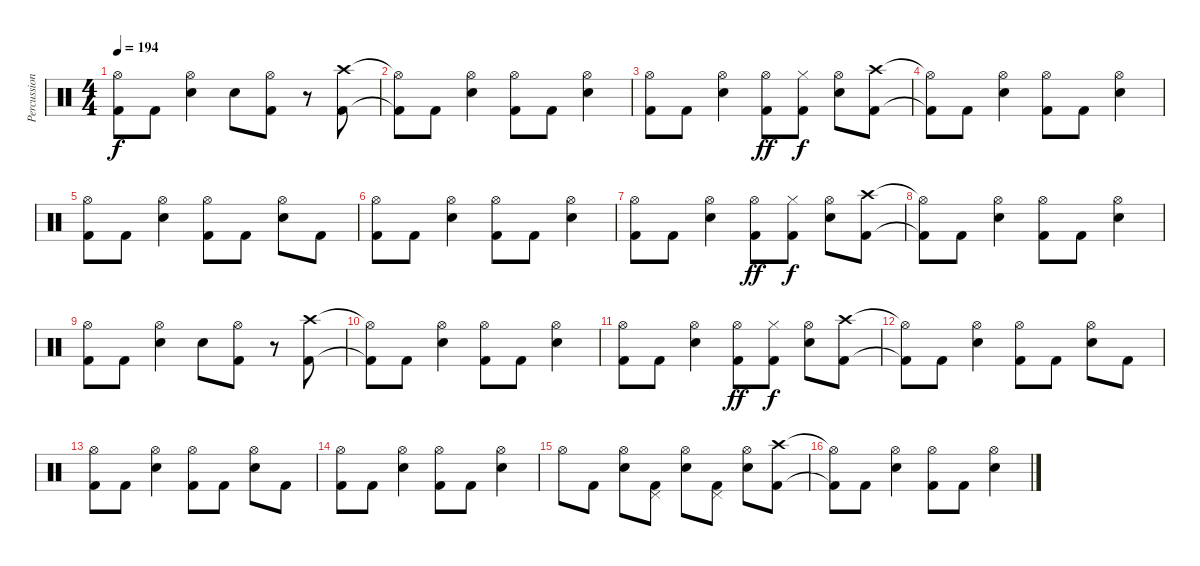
\track ("Percussion" "Percussion") {instrument percussion}
\staff {score}
\articulation defaults
\ts (4 4)
\tempo 194
\clef neutral
\ks c
("Hi-Hat (open)" "Kick (hit) 2").8{dy f} "Kick (hit) 2".8 ("Hi-Hat (open)" "Electric Snare (hit)").4 "Electric Snare (hit)".8 ("Hi-Hat (open)" "Kick (hit) 2").8 r.8 ("Crash high (hit)" "Kick (hit) 2").8 |
("Hi-Hat (open)"{t} "Kick (hit) 2"{t}).8 "Kick (hit) 2".8 ("Hi-Hat (open)" "Electric Snare (hit)").4 ("Hi-Hat (open)" "Kick (hit) 2").8 "Kick (hit) 2".8 ("Hi-Hat (open)" "Electric Snare (hit)").4 |
("Hi-Hat (open)" "Kick (hit) 2").8 "Kick (hit) 2".8 ("Hi-Hat (open)" "Electric Snare (hit)").4 ("Hi-Hat (open)" "Kick (hit) 2").8{dy ff} ("Hi-Hat (closed)" "Kick (hit) 2").8{dy f} ("Hi-Hat (open)" "Electric Snare (hit)").8 ("Crash high (hit)" "Kick (hit) 2").8 |
("Hi-Hat (open)"{t} "Kick (hit) 2"{t}).8 "Kick (hit) 2".8 ("Hi-Hat (open)" "Electric Snare (hit)").4 ("Hi-Hat (open)" "Kick (hit) 2").8 "Kick (hit) 2".8 ("Hi-Hat (open)" "Electric Snare (hit)").4 |
("Hi-Hat (open)" "Kick (hit) 2").8 "Kick (hit) 2".8 ("Hi-Hat (open)" "Electric Snare (hit)").4 ("Hi-Hat (open)" "Kick (hit) 2").8 "Kick (hit) 2".8 ("Hi-Hat (open)" "Electric Snare (hit)").8 "Kick (hit) 2".8 |
("Hi-Hat (open)" "Kick (hit) 2").8 "Kick (hit) 2".8 ("Hi-Hat (open)" "Electric Snare (hit)").4 ("Hi-Hat (open)" "Kick (hit) 2").8 "Kick (hit) 2".8 ("Hi-Hat (open)" "Electric Snare (hit)").4 |
("Hi-Hat (open)" "Kick (hit) 2").8 "Kick (hit) 2".8 ("Hi-Hat (open)" "Electric Snare (hit)").4 ("Hi-Hat (open)" "Kick (hit) 2").8{dy ff} ("Hi-Hat (closed)" "Kick (hit) 2").8{dy f} ("Hi-Hat (open)" "Electric Snare (hit)").8 ("Crash high (hit)" "Kick (hit) 2").8 |
("Hi-Hat (open)"{t} "Kick (hit) 2"{t}).8 "Kick (hit) 2".8 ("Hi-Hat (open)" "Electric Snare (hit)").4 ("Hi-Hat (open)" "Kick (hit) 2").8 "Kick (hit) 2".8 ("Hi-Hat (open)" "Electric Snare (hit)").4 |
("Hi-Hat (open)" "Kick (hit) 2").8 "Kick (hit) 2".8 ("Hi-Hat (open)" "Electric Snare (hit)").4 "Electric Snare (hit)".8 ("Hi-Hat (open)" "Kick (hit) 2").8 r.8 ("Crash high (hit)" "Kick (hit) 2").8 |
("Hi-Hat (open)"{t} "Kick (hit) 2"{t}).8 "Kick (hit) 2".8 ("Hi-Hat (open)" "Electric Snare (hit)").4 ("Hi-Hat (open)" "Kick (hit) 2").8 "Kick (hit) 2".8 ("Hi-Hat (open)" "Electric Snare (hit)").4 |
("Hi-Hat (open)" "Kick (hit) 2").8 "Kick (hit) 2".8 ("Hi-Hat (open)" "Electric Snare (hit)").4 ("Hi-Hat (open)" "Kick (hit) 2").8{dy ff} ("Hi-Hat (closed)" "Kick (hit) 2").8{dy f} ("Hi-Hat (open)" "Electric Snare (hit)").8 ("Crash high (hit)" "Kick (hit) 2").8 |
("Hi-Hat (open)"{t} "Kick (hit) 2"{t}).8 "Kick (hit) 2".8 ("Hi-Hat (open)" "Electric Snare (hit)").4 ("Hi-Hat (open)" "Kick (hit) 2").8 "Kick (hit) 2".8 ("Hi-Hat (open)" "Electric Snare (hit)").8 "Kick (hit) 2".8 |
("Hi-Hat (open)" "Kick (hit) 2").8 "Kick (hit) 2".8 ("Hi-Hat (open)" "Electric Snare (hit)").4 ("Hi-Hat (open)" "Kick (hit) 2").8 "Kick (hit) 2".8 ("Hi-Hat (open)" "Electric Snare (hit)").8 "Kick (hit) 2".8 |
("Hi-Hat (open)" "Kick (hit) 2").8 "Kick (hit) 2".8 ("Hi-Hat (open)" "Electric Snare (hit)").4 ("Hi-Hat (open)" "Kick (hit) 2").8 "Kick (hit) 2".8 ("Hi-Hat (open)" "Electric Snare (hit)").4 |
"Hi-Hat (open)".8 "Kick (hit) 2".8 ("Hi-Hat (open)" "Electric Snare (hit)").8 ("Pedal Hi-Hat (hit)" "Kick (hit) 2").8 ("Hi-Hat (open)" "Electric Snare (hit)").8 ("Pedal Hi-Hat (hit)" "Kick (hit) 2").8 ("Hi-Hat (open)" "Electric Snare (hit)").8 ("Crash high (hit)" "Kick (hit) 2").8 |
("Hi-Hat (open)"{t} "Kick (hit) 2"{t}).8 "Kick (hit) 2".8 ("Hi-Hat (open)" "Electric Snare (hit)").4 ("Hi-Hat (open)" "Kick (hit) 2").8 "Kick (hit) 2".8 ("Hi-Hat (open)" "Electric Snare (hit)").4
